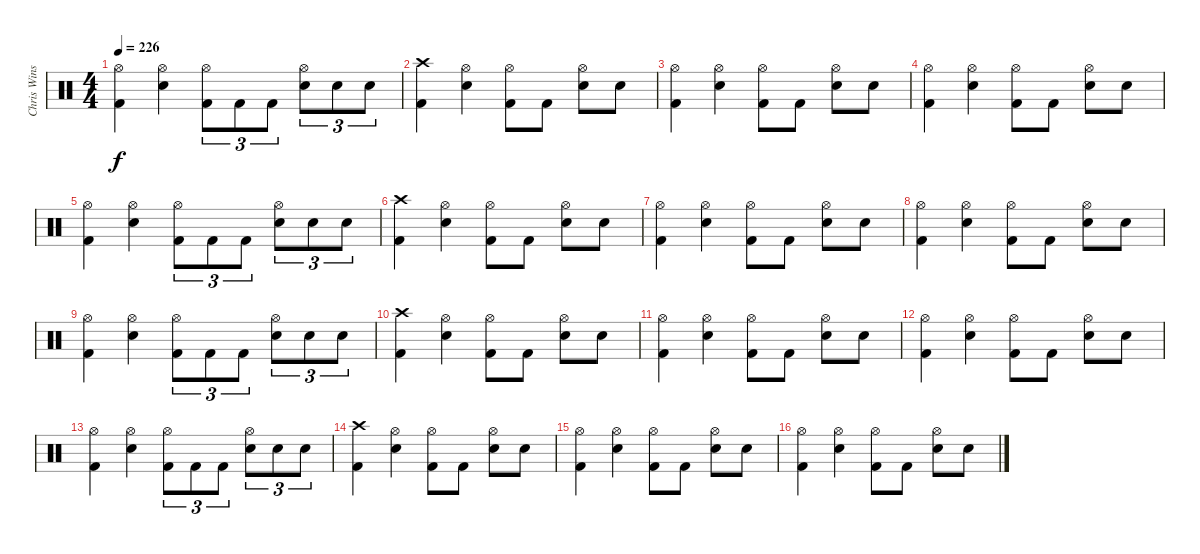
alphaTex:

\track ("Chris Winship (Drums)" "Chris Wins") {instrument percussion}
\staff {score}
\articulation defaults
\ts (4 4)
\tempo 226
\clef neutral
\ks c
("Hi-Hat (open)" "Kick (hit) 2").4{dy f} ("Hi-Hat (open)" "Electric Snare (hit)").4 ("Hi-Hat (open)" "Kick (hit) 2").8{tu (3 2)} "Kick (hit) 2".8{tu (3 2)} "Kick (hit) 2".8{tu (3 2)} ("Hi-Hat (open)" "Electric Snare (hit)").8{tu (3 2)} "Electric Snare (hit)".8{tu (3 2)} "Electric Snare (hit)".8{tu (3 2)} |
("Crash high (hit)" "Kick (hit) 2").4 ("Hi-Hat (open)" "Electric Snare (hit)").4 ("Hi-Hat (open)" "Kick (hit) 2").8 "Kick (hit) 2".8 ("Hi-Hat (open)" "Electric Snare (hit)").8 "Electric Snare (hit)".8 |
("Hi-Hat (open)" "Kick (hit) 2").4 ("Hi-Hat (open)" "Electric Snare (hit)").4 ("Hi-Hat (open)" "Kick (hit) 2").8 "Kick (hit) 2".8 ("Hi-Hat (open)" "Electric Snare (hit)").8 "Electric Snare (hit)".8 |
("Hi-Hat (open)" "Kick (hit) 2").4 ("Hi-Hat (open)" "Electric Snare (hit)").4 ("Hi-Hat (open)" "Kick (hit) 2").8 "Kick (hit) 2".8 ("Hi-Hat (open)" "Electric Snare (hit)").8 "Electric Snare (hit)".8 |
("Hi-Hat (open)" "Kick (hit) 2").4 ("Hi-Hat (open)" "Electric Snare (hit)").4 ("Hi-Hat (open)" "Kick (hit) 2").8{tu (3 2)} "Kick (hit) 2".8{tu (3 2)} "Kick (hit) 2".8{tu (3 2)} ("Hi-Hat (open)" "Electric Snare (hit)").8{tu (3 2)} "Electric Snare (hit)".8{tu (3 2)} "Electric Snare (hit)".8{tu (3 2)} |
("Crash high (hit)" "Kick (hit) 2").4 ("Hi-Hat (open)" "Electric Snare (hit)").4 ("Hi-Hat (open)" "Kick (hit) 2").8 "Kick (hit) 2".8 ("Hi-Hat (open)" "Electric Snare (hit)").8 "Electric Snare (hit)".8 |
("Hi-Hat (open)" "Kick (hit) 2").4 ("Hi-Hat (open)" "Electric Snare (hit)").4 ("Hi-Hat (open)" "Kick (hit) 2").8 "Kick (hit) 2".8 ("Hi-Hat (open)" "Electric Snare (hit)").8 "Electric Snare (hit)".8 |
("Hi-Hat (open)" "Kick (hit) 2").4 ("Hi-Hat (open)" "Electric Snare (hit)").4 ("Hi-Hat (open)" "Kick (hit) 2").8 "Kick (hit) 2".8 ("Hi-Hat (open)" "Electric Snare (hit)").8 "Electric Snare (hit)".8 |
("Hi-Hat (open)" "Kick (hit) 2").4 ("Hi-Hat (open)" "Electric Snare (hit)").4 ("Hi-Hat (open)" "Kick (hit) 2").8{tu (3 2)} "Kick (hit) 2".8{tu (3 2)} "Kick (hit) 2".8{tu (3 2)} ("Hi-Hat (open)" "Electric Snare (hit)").8{tu (3 2)} "Electric Snare (hit)".8{tu (3 2)} "Electric Snare (hit)".8{tu (3 2)} |
("Crash high (hit)" "Kick (hit) 2").4 ("Hi-Hat (open)" "Electric Snare (hit)").4 ("Hi-Hat (open)" "Kick (hit) 2").8 "Kick (hit) 2".8 ("Hi-Hat (open)" "Electric Snare (hit)").8 "Electric Snare (hit)".8 |
("Hi-Hat (open)" "Kick (hit) 2").4 ("Hi-Hat (open)" "Electric Snare (hit)").4 ("Hi-Hat (open)" "Kick (hit) 2").8 "Kick (hit) 2".8 ("Hi-Hat (open)" "Electric Snare (hit)").8 "Electric Snare (hit)".8 |
("Hi-Hat (open)" "Kick (hit) 2").4 ("Hi-Hat (open)" "Electric Snare (hit)").4 ("Hi-Hat (open)" "Kick (hit) 2").8 "Kick (hit) 2".8 ("Hi-Hat (open)" "Electric Snare (hit)").8 "Electric Snare (hit)".8 |
("Hi-Hat (open)" "Kick (hit) 2").4 ("Hi-Hat (open)" "Electric Snare (hit)").4 ("Hi-Hat (open)" "Kick (hit) 2").8{tu (3 2)} "Kick (hit) 2".8{tu (3 2)} "Kick (hit) 2".8{tu (3 2)} ("Hi-Hat (open)" "Electric Snare (hit)").8{tu (3 2)} "Electric Snare (hit)".8{tu (3 2)} "Electric Snare (hit)".8{tu (3 2)} |
("Crash high (hit)" "Kick (hit) 2").4 ("Hi-Hat (open)" "Electric Snare (hit)").4 ("Hi-Hat (open)" "Kick (hit) 2").8 "Kick (hit) 2".8 ("Hi-Hat (open)" "Electric Snare (hit)").8 "Electric Snare (hit)".8 |
("Hi-Hat (open)" "Kick (hit) 2").4 ("Hi-Hat (open)" "Electric Snare (hit)").4 ("Hi-Hat (open)" "Kick (hit) 2").8 "Kick (hit) 2".8 ("Hi-Hat (open)" "Electric Snare (hit)").8 "Electric Snare (hit)".8 |
("Hi-Hat (open)" "Kick (hit) 2").4 ("Hi-Hat (open)" "Electric Snare (hit)").4 ("Hi-Hat (open)" "Kick (hit) 2").8 "Kick (hit) 2".8 ("Hi-Hat (open)" "Electric Snare (hit)").8 "Electric Snare (hit)".8
